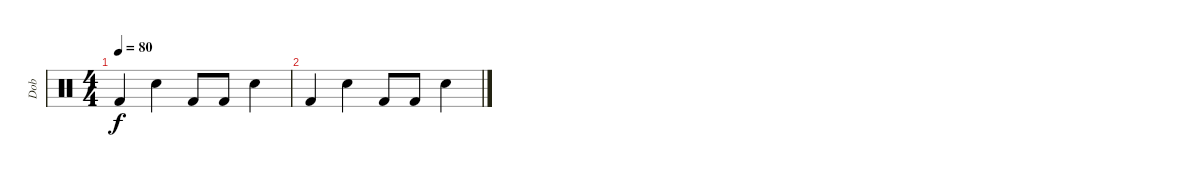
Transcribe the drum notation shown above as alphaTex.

\track ("Dob" "Dob") {instrument percussion}
\staff {score}
\articulation defaults
\ts (4 4)
\tempo 80
\clef neutral
\ks c "Kick (hit) 2".4{dy f} "Snare (hit) 2".4 "Kick (hit) 2".8 "Kick (hit) 2".8 "Snare (hit) 2".4
|
"Kick (hit) 2".4 "Snare (hit) 2".4 "Kick (hit) 2".8 "Kick (hit) 2".8 "Snare (hit) 2".4
